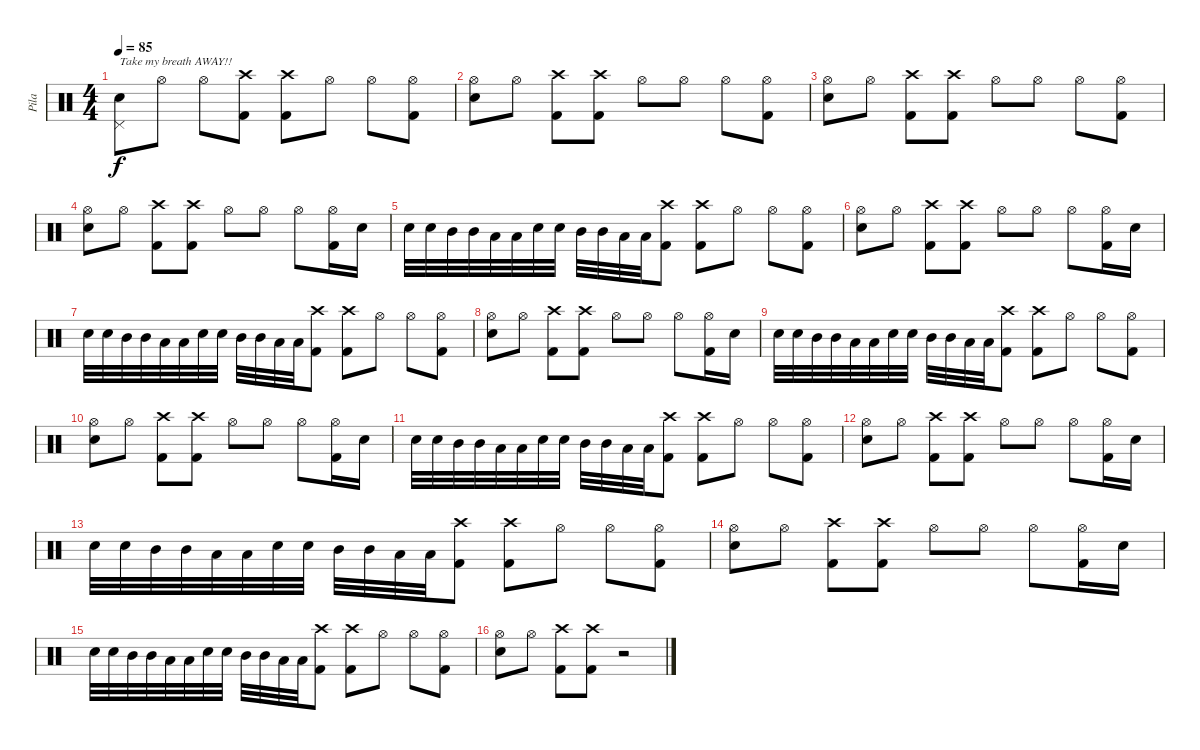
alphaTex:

\track ("Pila" "Pila") {instrument percussion}
\staff {score}
\articulation defaults
\ts (4 4)
\tempo 85
\clef neutral
\ks c
("Pedal Hi-Hat (hit)" "Electric Snare (hit)").8{txt "Take my breath AWAY!!" dy f} "Hi-Hat (open)".8 "Hi-Hat (open)".8 ("Crash high (hit)" "Kick (hit) 2").8 ("Crash high (hit)" "Kick (hit) 2").8 "Hi-Hat (open)".8 "Hi-Hat (open)".8 ("Hi-Hat (open)" "Kick (hit) 2").8 |
("Hi-Hat (open)" "Electric Snare (hit)").8 "Hi-Hat (open)".8 ("Crash high (hit)" "Kick (hit) 2").8 ("Crash high (hit)" "Kick (hit) 2").8 "Hi-Hat (open)".8 "Hi-Hat (open)".8 "Hi-Hat (open)".8 ("Hi-Hat (open)" "Kick (hit) 2").8 |
("Hi-Hat (open)" "Electric Snare (hit)").8 "Hi-Hat (open)".8 ("Crash high (hit)" "Kick (hit) 2").8 ("Crash high (hit)" "Kick (hit) 2").8 "Hi-Hat (open)".8 "Hi-Hat (open)".8 "Hi-Hat (open)".8 ("Hi-Hat (open)" "Kick (hit) 2").8 |
("Hi-Hat (open)" "Electric Snare (hit)").8 "Hi-Hat (open)".8 ("Crash high (hit)" "Kick (hit) 2").8 ("Crash high (hit)" "Kick (hit) 2").8 "Hi-Hat (open)".8 "Hi-Hat (open)".8 "Hi-Hat (open)".8 ("Hi-Hat (open)" "Kick (hit) 2").16 "Electric Snare (hit)".16 |
"Electric Snare (hit)".32 "Electric Snare (hit)".32 "Mid Tom (hit)".32 "Mid Tom (hit)".32 "Low Tom (hit)".32 "Low Tom (hit)".32 "Electric Snare (hit)".32 "Electric Snare (hit)".32 "Mid Tom (hit)".32 "Mid Tom (hit)".32 "Low Tom (hit)".32 "Low Tom (hit)".32 ("Crash high (hit)" "Kick (hit) 2").8 ("Crash high (hit)" "Kick (hit) 2").8 "Hi-Hat (open)".8 "Hi-Hat (open)".8 ("Hi-Hat (open)" "Kick (hit) 2").8 |
("Hi-Hat (open)" "Electric Snare (hit)").8 "Hi-Hat (open)".8 ("Crash high (hit)" "Kick (hit) 2").8 ("Crash high (hit)" "Kick (hit) 2").8 "Hi-Hat (open)".8 "Hi-Hat (open)".8 "Hi-Hat (open)".8 ("Hi-Hat (open)" "Kick (hit) 2").16 "Electric Snare (hit)".16 |
"Electric Snare (hit)".32 "Electric Snare (hit)".32 "Mid Tom (hit)".32 "Mid Tom (hit)".32 "Low Tom (hit)".32 "Low Tom (hit)".32 "Electric Snare (hit)".32 "Electric Snare (hit)".32 "Mid Tom (hit)".32 "Mid Tom (hit)".32 "Low Tom (hit)".32 "Low Tom (hit)".32 ("Crash high (hit)" "Kick (hit) 2").8 ("Crash high (hit)" "Kick (hit) 2").8 "Hi-Hat (open)".8 "Hi-Hat (open)".8 ("Hi-Hat (open)" "Kick (hit) 2").8 |
("Hi-Hat (open)" "Electric Snare (hit)").8 "Hi-Hat (open)".8 ("Crash high (hit)" "Kick (hit) 2").8 ("Crash high (hit)" "Kick (hit) 2").8 "Hi-Hat (open)".8 "Hi-Hat (open)".8 "Hi-Hat (open)".8 ("Hi-Hat (open)" "Kick (hit) 2").16 "Electric Snare (hit)".16 |
"Electric Snare (hit)".32 "Electric Snare (hit)".32 "Mid Tom (hit)".32 "Mid Tom (hit)".32 "Low Tom (hit)".32 "Low Tom (hit)".32 "Electric Snare (hit)".32 "Electric Snare (hit)".32 "Mid Tom (hit)".32 "Mid Tom (hit)".32 "Low Tom (hit)".32 "Low Tom (hit)".32 ("Crash high (hit)" "Kick (hit) 2").8 ("Crash high (hit)" "Kick (hit) 2").8 "Hi-Hat (open)".8 "Hi-Hat (open)".8 ("Hi-Hat (open)" "Kick (hit) 2").8 |
("Hi-Hat (open)" "Electric Snare (hit)").8 "Hi-Hat (open)".8 ("Crash high (hit)" "Kick (hit) 2").8 ("Crash high (hit)" "Kick (hit) 2").8 "Hi-Hat (open)".8 "Hi-Hat (open)".8 "Hi-Hat (open)".8 ("Hi-Hat (open)" "Kick (hit) 2").16 "Electric Snare (hit)".16 |
"Electric Snare (hit)".32 "Electric Snare (hit)".32 "Mid Tom (hit)".32 "Mid Tom (hit)".32 "Low Tom (hit)".32 "Low Tom (hit)".32 "Electric Snare (hit)".32 "Electric Snare (hit)".32 "Mid Tom (hit)".32 "Mid Tom (hit)".32 "Low Tom (hit)".32 "Low Tom (hit)".32 ("Crash high (hit)" "Kick (hit) 2").8 ("Crash high (hit)" "Kick (hit) 2").8 "Hi-Hat (open)".8 "Hi-Hat (open)".8 ("Hi-Hat (open)" "Kick (hit) 2").8 |
("Hi-Hat (open)" "Electric Snare (hit)").8 "Hi-Hat (open)".8 ("Crash high (hit)" "Kick (hit) 2").8 ("Crash high (hit)" "Kick (hit) 2").8 "Hi-Hat (open)".8 "Hi-Hat (open)".8 "Hi-Hat (open)".8 ("Hi-Hat (open)" "Kick (hit) 2").16 "Electric Snare (hit)".16 |
"Electric Snare (hit)".32 "Electric Snare (hit)".32 "Mid Tom (hit)".32 "Mid Tom (hit)".32 "Low Tom (hit)".32 "Low Tom (hit)".32 "Electric Snare (hit)".32 "Electric Snare (hit)".32 "Mid Tom (hit)".32 "Mid Tom (hit)".32 "Low Tom (hit)".32 "Low Tom (hit)".32 ("Crash high (hit)" "Kick (hit) 2").8 ("Crash high (hit)" "Kick (hit) 2").8 "Hi-Hat (open)".8 "Hi-Hat (open)".8 ("Hi-Hat (open)" "Kick (hit) 2").8 |
("Hi-Hat (open)" "Electric Snare (hit)").8 "Hi-Hat (open)".8 ("Crash high (hit)" "Kick (hit) 2").8 ("Crash high (hit)" "Kick (hit) 2").8 "Hi-Hat (open)".8 "Hi-Hat (open)".8 "Hi-Hat (open)".8 ("Hi-Hat (open)" "Kick (hit) 2").16 "Electric Snare (hit)".16 |
"Electric Snare (hit)".32 "Electric Snare (hit)".32 "Mid Tom (hit)".32 "Mid Tom (hit)".32 "Low Tom (hit)".32 "Low Tom (hit)".32 "Electric Snare (hit)".32 "Electric Snare (hit)".32 "Mid Tom (hit)".32 "Mid Tom (hit)".32 "Low Tom (hit)".32 "Low Tom (hit)".32 ("Crash high (hit)" "Kick (hit) 2").8 ("Crash high (hit)" "Kick (hit) 2").8 "Hi-Hat (open)".8 "Hi-Hat (open)".8 ("Hi-Hat (open)" "Kick (hit) 2").8 |
("Hi-Hat (open)" "Electric Snare (hit)").8 "Hi-Hat (open)".8 ("Crash high (hit)" "Kick (hit) 2").8 ("Crash high (hit)" "Kick (hit) 2").8 r.2
